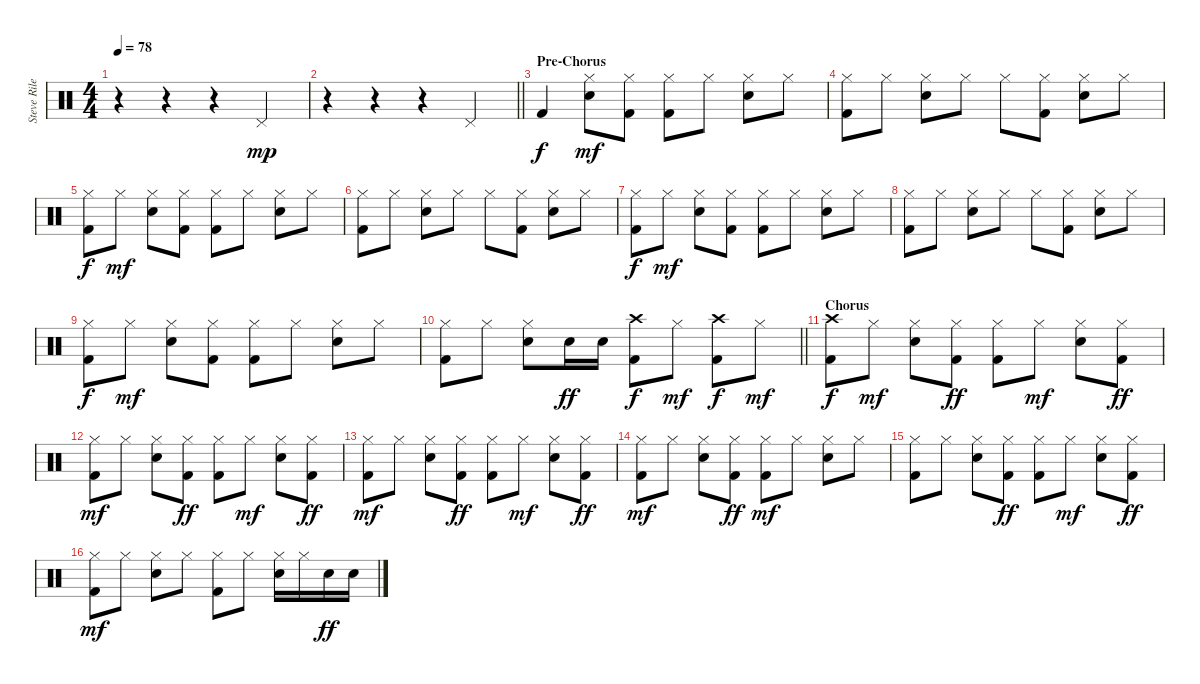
\track ("Steve Riley" "Steve Rile") {instrument percussion}
\staff {score}
\articulation defaults
\ts (4 4)
\tempo 78
\clef neutral
\ks c
r.4{dy mp} r.4 r.4 "Pedal Hi-Hat (hit)".4 |
\barLineRight lightlight
r.4 r.4 r.4 "Pedal Hi-Hat (hit)".4 |
\section ("" "Pre-Chorus")
"Kick (hit) 2".4{dy f} ("Hi-Hat (closed)" "Electric Snare (hit)").8{dy mf} ("Hi-Hat (closed)" "Kick (hit) 2").8 ("Hi-Hat (closed)" "Kick (hit) 2").8 "Hi-Hat (closed)".8 ("Hi-Hat (closed)" "Electric Snare (hit)").8 "Hi-Hat (closed)".8 |
("Hi-Hat (closed)" "Kick (hit) 2").8 "Hi-Hat (closed)".8 ("Hi-Hat (closed)" "Electric Snare (hit)").8 "Hi-Hat (closed)".8 "Hi-Hat (closed)".8 ("Hi-Hat (closed)" "Kick (hit) 2").8 ("Hi-Hat (closed)" "Electric Snare (hit)").8 "Hi-Hat (closed)".8 |
("Hi-Hat (closed)" "Kick (hit) 2").8{dy f} "Hi-Hat (closed)".8{dy mf} ("Hi-Hat (closed)" "Electric Snare (hit)").8 ("Hi-Hat (closed)" "Kick (hit) 2").8 ("Hi-Hat (closed)" "Kick (hit) 2").8 "Hi-Hat (closed)".8 ("Hi-Hat (closed)" "Electric Snare (hit)").8 "Hi-Hat (closed)".8 |
("Hi-Hat (closed)" "Kick (hit) 2").8 "Hi-Hat (closed)".8 ("Hi-Hat (closed)" "Electric Snare (hit)").8 "Hi-Hat (closed)".8 "Hi-Hat (closed)".8 ("Hi-Hat (closed)" "Kick (hit) 2").8 ("Hi-Hat (closed)" "Electric Snare (hit)").8 "Hi-Hat (closed)".8 |
("Hi-Hat (closed)" "Kick (hit) 2").8{dy f} "Hi-Hat (closed)".8{dy mf} ("Hi-Hat (closed)" "Electric Snare (hit)").8 ("Hi-Hat (closed)" "Kick (hit) 2").8 ("Hi-Hat (closed)" "Kick (hit) 2").8 "Hi-Hat (closed)".8 ("Hi-Hat (closed)" "Electric Snare (hit)").8 "Hi-Hat (closed)".8 |
("Hi-Hat (closed)" "Kick (hit) 2").8 "Hi-Hat (closed)".8 ("Hi-Hat (closed)" "Electric Snare (hit)").8 "Hi-Hat (closed)".8 "Hi-Hat (closed)".8 ("Hi-Hat (closed)" "Kick (hit) 2").8 ("Hi-Hat (closed)" "Electric Snare (hit)").8 "Hi-Hat (closed)".8 |
("Hi-Hat (closed)" "Kick (hit) 2").8{dy f} "Hi-Hat (closed)".8{dy mf} ("Hi-Hat (closed)" "Electric Snare (hit)").8 ("Hi-Hat (closed)" "Kick (hit) 2").8 ("Hi-Hat (closed)" "Kick (hit) 2").8 "Hi-Hat (closed)".8 ("Hi-Hat (closed)" "Electric Snare (hit)").8 "Hi-Hat (closed)".8 |
\barLineRight lightlight
("Hi-Hat (closed)" "Kick (hit) 2").8 "Hi-Hat (closed)".8 ("Hi-Hat (closed)" "Electric Snare (hit)").8 "Electric Snare (hit)".16{dy ff} "Electric Snare (hit)".16 ("Crash high (hit)" "Kick (hit) 2").8{dy f} "Hi-Hat (closed)".8{dy mf} ("Crash high (hit)" "Kick (hit) 2").8{dy f} "Hi-Hat (closed)".8{dy mf} |
\section ("" "Chorus")
("Crash high (hit)" "Kick (hit) 2").8{dy f} "Hi-Hat (closed)".8{dy mf} ("Hi-Hat (closed)" "Electric Snare (hit)").8 ("Hi-Hat (closed)" "Kick (hit) 2").8{dy ff} ("Hi-Hat (closed)" "Kick (hit) 2").8 "Hi-Hat (closed)".8{dy mf} ("Hi-Hat (closed)" "Electric Snare (hit)").8 ("Hi-Hat (closed)" "Kick (hit) 2").8{dy ff} |
("Hi-Hat (closed)" "Kick (hit) 2").8{dy mf} "Hi-Hat (closed)".8 ("Hi-Hat (closed)" "Electric Snare (hit)").8 ("Hi-Hat (closed)" "Kick (hit) 2").8{dy ff} ("Hi-Hat (closed)" "Kick (hit) 2").8 "Hi-Hat (closed)".8{dy mf} ("Hi-Hat (closed)" "Electric Snare (hit)").8 ("Hi-Hat (closed)" "Kick (hit) 2").8{dy ff} |
("Hi-Hat (closed)" "Kick (hit) 2").8{dy mf} "Hi-Hat (closed)".8 ("Hi-Hat (closed)" "Electric Snare (hit)").8 ("Hi-Hat (closed)" "Kick (hit) 2").8{dy ff} ("Hi-Hat (closed)" "Kick (hit) 2").8 "Hi-Hat (closed)".8{dy mf} ("Hi-Hat (closed)" "Electric Snare (hit)").8 ("Hi-Hat (closed)" "Kick (hit) 2").8{dy ff} |
("Hi-Hat (closed)" "Kick (hit) 2").8{dy mf} "Hi-Hat (closed)".8 ("Hi-Hat (closed)" "Electric Snare (hit)").8 ("Hi-Hat (closed)" "Kick (hit) 2").8{dy ff} ("Hi-Hat (closed)" "Kick (hit) 2").8{dy mf} "Hi-Hat (closed)".8 ("Hi-Hat (closed)" "Electric Snare (hit)").8 "Hi-Hat (closed)".8 |
("Hi-Hat (closed)" "Kick (hit) 2").8 "Hi-Hat (closed)".8 ("Hi-Hat (closed)" "Electric Snare (hit)").8 ("Hi-Hat (closed)" "Kick (hit) 2").8{dy ff} ("Hi-Hat (closed)" "Kick (hit) 2").8 "Hi-Hat (closed)".8{dy mf} ("Hi-Hat (closed)" "Electric Snare (hit)").8 ("Hi-Hat (closed)" "Kick (hit) 2").8{dy ff} |
("Hi-Hat (closed)" "Kick (hit) 2").8{dy mf} "Hi-Hat (closed)".8 ("Hi-Hat (closed)" "Electric Snare (hit)").8 "Hi-Hat (closed)".8 ("Hi-Hat (closed)" "Kick (hit) 2").8 "Hi-Hat (closed)".8 ("Hi-Hat (closed)" "Electric Snare (hit)").16 "Hi-Hat (closed)".16 "Electric Snare (hit)".16{dy ff} "Electric Snare (hit)".16
